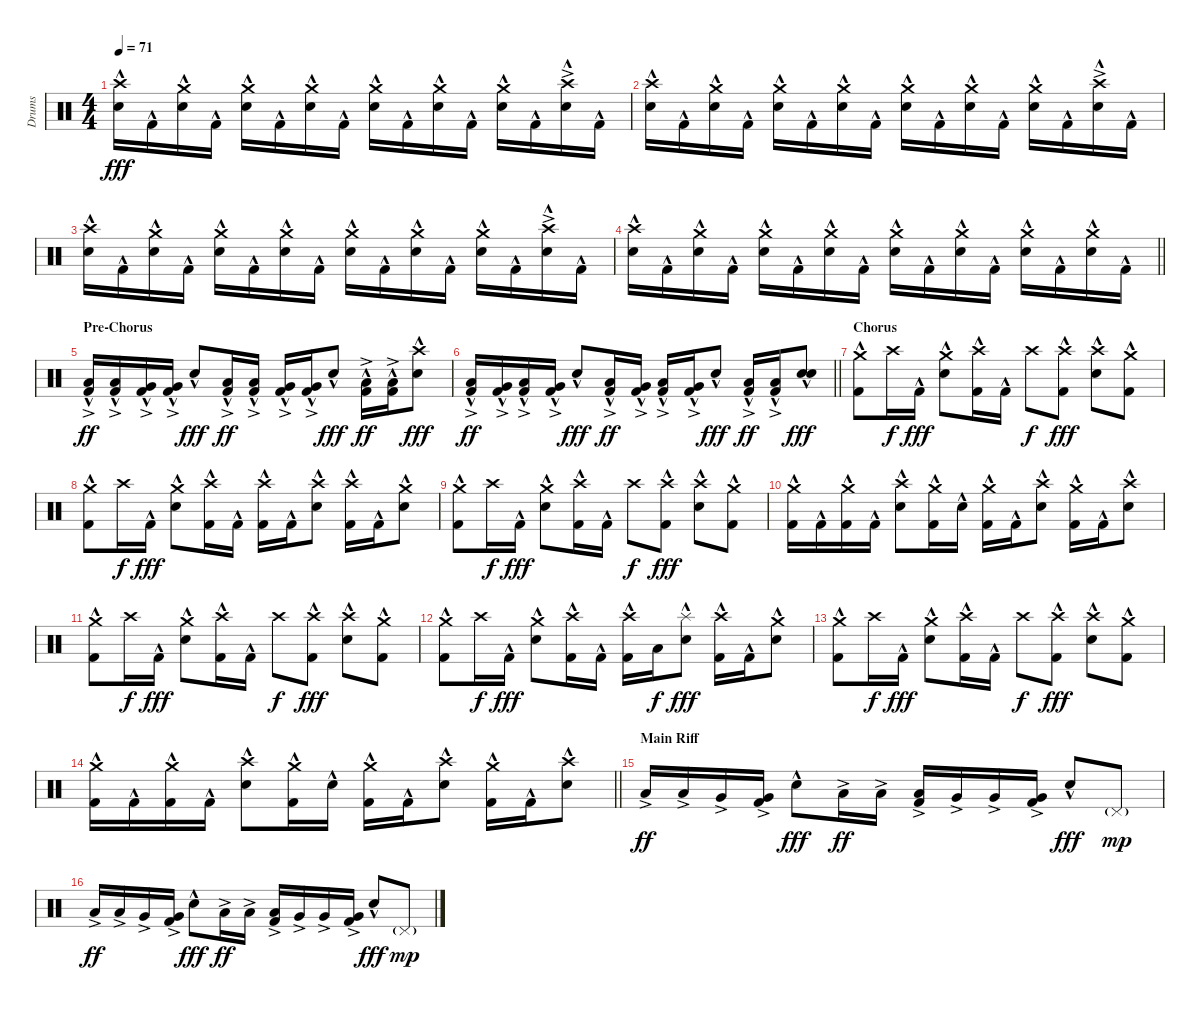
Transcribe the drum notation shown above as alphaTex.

\track ("Drums" "Drums") {instrument percussion}
\staff {score}
\articulation defaults
\ts (4 4)
\tempo 71
\clef neutral
\ks c
("Crash high (hit)" "Electric Snare (hit)"{hac}).16{dy fff} "Kick (hit) 2"{hac}.16 ("Crash medium (hit)" "Electric Snare (hit)"{hac}).16 "Kick (hit) 2"{hac}.16 ("Crash medium (hit)" "Electric Snare (hit)"{hac}).16 "Kick (hit) 2"{hac}.16 ("Crash medium (hit)" "Electric Snare (hit)"{hac}).16 "Kick (hit) 2"{hac}.16 ("Crash medium (hit)" "Electric Snare (hit)"{hac}).16 "Kick (hit) 2"{hac}.16 ("Crash medium (hit)" "Electric Snare (hit)"{hac}).16 "Kick (hit) 2"{hac}.16 ("Crash medium (hit)" "Electric Snare (hit)"{hac}).16 "Kick (hit) 2"{hac}.16 ("Crash high (hit)"{ac} "Electric Snare (hit)"{hac}).16 "Kick (hit) 2"{hac}.16 |
("Crash high (hit)" "Electric Snare (hit)"{hac}).16 "Kick (hit) 2"{hac}.16 ("Crash medium (hit)" "Electric Snare (hit)"{hac}).16 "Kick (hit) 2"{hac}.16 ("Crash medium (hit)" "Electric Snare (hit)"{hac}).16 "Kick (hit) 2"{hac}.16 ("Crash medium (hit)" "Electric Snare (hit)"{hac}).16 "Kick (hit) 2"{hac}.16 ("Crash medium (hit)" "Electric Snare (hit)"{hac}).16 "Kick (hit) 2"{hac}.16 ("Crash medium (hit)" "Electric Snare (hit)"{hac}).16 "Kick (hit) 2"{hac}.16 ("Crash medium (hit)" "Electric Snare (hit)"{hac}).16 "Kick (hit) 2"{hac}.16 ("Crash high (hit)"{ac} "Electric Snare (hit)"{hac}).16 "Kick (hit) 2"{hac}.16 |
("Crash high (hit)" "Electric Snare (hit)"{hac}).16 "Kick (hit) 2"{hac}.16 ("Crash medium (hit)" "Electric Snare (hit)"{hac}).16 "Kick (hit) 2"{hac}.16 ("Crash medium (hit)" "Electric Snare (hit)"{hac}).16 "Kick (hit) 2"{hac}.16 ("Crash medium (hit)" "Electric Snare (hit)"{hac}).16 "Kick (hit) 2"{hac}.16 ("Crash medium (hit)" "Electric Snare (hit)"{hac}).16 "Kick (hit) 2"{hac}.16 ("Crash medium (hit)" "Electric Snare (hit)"{hac}).16 "Kick (hit) 2"{hac}.16 ("Crash medium (hit)" "Electric Snare (hit)"{hac}).16 "Kick (hit) 2"{hac}.16 ("Crash high (hit)"{ac} "Electric Snare (hit)"{hac}).16 "Kick (hit) 2"{hac}.16 |
\barLineRight lightlight
("Crash high (hit)" "Electric Snare (hit)"{hac}).16 "Kick (hit) 2"{hac}.16 ("Crash medium (hit)" "Electric Snare (hit)"{hac}).16 "Kick (hit) 2"{hac}.16 ("Crash medium (hit)" "Electric Snare (hit)"{hac}).16 "Kick (hit) 2"{hac}.16 ("Crash medium (hit)" "Electric Snare (hit)"{hac}).16 "Kick (hit) 2"{hac}.16 ("Crash medium (hit)" "Electric Snare (hit)"{hac}).16 "Kick (hit) 2"{hac}.16 ("Crash medium (hit)" "Electric Snare (hit)"{hac}).16 "Kick (hit) 2"{hac}.16 ("Crash medium (hit)" "Electric Snare (hit)"{hac}).16 "Kick (hit) 2"{hac}.16 ("Crash medium (hit)" "Electric Snare (hit)"{hac}).16 "Kick (hit) 2"{hac}.16 |
\section ("" "Pre-Chorus")
("Low Floor Tom (hit)"{hac} "Kick (hit) 2"{ac}).16{dy ff} ("Low Floor Tom (hit)"{hac} "Kick (hit) 2"{ac}).16 ("Very Low Tom (hit)"{hac} "Kick (hit) 2"{ac}).16 ("Very Low Tom (hit)"{hac} "Kick (hit) 2"{ac}).16 "Electric Snare (hit)"{hac}.8{dy fff} ("Low Floor Tom (hit)"{hac} "Kick (hit) 2"{ac}).16{dy ff} ("Low Floor Tom (hit)"{hac} "Kick (hit) 2"{ac}).16 ("Very Low Tom (hit)"{hac} "Kick (hit) 2"{ac}).16 ("Very Low Tom (hit)"{hac} "Kick (hit) 2"{ac}).16 "Electric Snare (hit)"{hac}.8{dy fff} ("Low Floor Tom (hit)"{hac} "Kick (hit) 2"{ac}).16{dy ff} ("Low Floor Tom (hit)"{hac} "Kick (hit) 2"{ac}).16 ("Crash high (hit)" "Electric Snare (hit)"{hac}).8{dy fff} |
\barLineRight lightlight
("Low Floor Tom (hit)"{hac} "Kick (hit) 2"{ac}).16{dy ff} ("Very Low Tom (hit)"{hac} "Kick (hit) 2"{ac}).16 ("Low Floor Tom (hit)"{hac} "Kick (hit) 2"{ac}).16 ("Very Low Tom (hit)"{hac} "Kick (hit) 2"{ac}).16 "Electric Snare (hit)"{hac}.8{dy fff} ("Low Floor Tom (hit)"{hac} "Kick (hit) 2"{ac}).16{dy ff} ("Very Low Tom (hit)"{hac} "Kick (hit) 2"{ac}).16 ("Low Floor Tom (hit)"{hac} "Kick (hit) 2"{ac}).16 ("Very Low Tom (hit)"{hac} "Kick (hit) 2"{ac}).16 "Electric Snare (hit)"{hac}.8{dy fff} ("Low Floor Tom (hit)"{hac} "Kick (hit) 2"{ac}).16{dy ff} ("Low Floor Tom (hit)"{hac} "Kick (hit) 2"{ac}).16 ("Electric Snare (hit)"{hac} "Snare (hit) 2"{hac}).8{dy fff} |
\section ("" "Chorus")
("Crash medium (hit)" "Kick (hit) 2"{hac}).8 "Crash high (hit)".16{dy f} "Kick (hit) 2"{hac}.16{dy fff} ("Crash medium (hit)" "Electric Snare (hit)"{hac}).8 ("Crash high (hit)" "Kick (hit) 2"{hac}).16 "Kick (hit) 2"{hac}.16 "Crash high (hit)".8{dy f} ("Crash high (hit)" "Kick (hit) 2"{hac}).8{dy fff} ("Crash high (hit)" "Electric Snare (hit)"{hac}).8 ("Crash medium (hit)" "Kick (hit) 2"{hac}).8 |
("Crash medium (hit)" "Kick (hit) 2"{hac}).8 "Crash high (hit)".16{dy f} "Kick (hit) 2"{hac}.16{dy fff} ("Crash medium (hit)" "Electric Snare (hit)"{hac}).8 ("Crash high (hit)" "Kick (hit) 2"{hac}).16 "Kick (hit) 2"{hac}.16 ("Crash high (hit)" "Kick (hit) 2"{hac}).16 "Kick (hit) 2"{hac}.16 ("Crash high (hit)" "Electric Snare (hit)"{hac}).8 ("Crash high (hit)" "Kick (hit) 2"{hac}).16 "Kick (hit) 2"{hac}.16 ("Crash medium (hit)" "Electric Snare (hit)"{hac}).8 |
("Crash medium (hit)" "Kick (hit) 2"{hac}).8 "Crash high (hit)".16{dy f} "Kick (hit) 2"{hac}.16{dy fff} ("Crash medium (hit)" "Electric Snare (hit)"{hac}).8 ("Crash high (hit)" "Kick (hit) 2"{hac}).16 "Kick (hit) 2"{hac}.16 "Crash high (hit)".8{dy f} ("Crash high (hit)" "Kick (hit) 2"{hac}).8{dy fff} ("Crash high (hit)" "Electric Snare (hit)"{hac}).8 ("Crash medium (hit)" "Kick (hit) 2"{hac}).8 |
("Crash medium (hit)" "Kick (hit) 2"{hac}).16 "Kick (hit) 2"{hac}.16 ("Crash medium (hit)" "Kick (hit) 2"{hac}).16 "Kick (hit) 2"{hac}.16 ("Crash high (hit)" "Electric Snare (hit)"{hac}).8 ("Crash medium (hit)" "Kick (hit) 2"{hac}).16 "Electric Snare (hit)"{hac}.16 ("Crash medium (hit)" "Kick (hit) 2"{hac}).16 "Kick (hit) 2"{hac}.16 ("Crash high (hit)" "Electric Snare (hit)"{hac}).8 ("Crash medium (hit)" "Kick (hit) 2"{hac}).16 "Kick (hit) 2"{hac}.16 ("Crash high (hit)" "Electric Snare (hit)"{hac}).8 |
("Crash medium (hit)" "Kick (hit) 2"{hac}).8 "Crash high (hit)".16{dy f} "Kick (hit) 2"{hac}.16{dy fff} ("Crash medium (hit)" "Electric Snare (hit)"{hac}).8 ("Crash high (hit)" "Kick (hit) 2"{hac}).16 "Kick (hit) 2"{hac}.16 "Crash high (hit)".8{dy f} ("Crash high (hit)" "Kick (hit) 2"{hac}).8{dy fff} ("Crash high (hit)" "Electric Snare (hit)"{hac}).8 ("Crash medium (hit)" "Kick (hit) 2"{hac}).8 |
("Crash medium (hit)" "Kick (hit) 2"{hac}).8 "Crash high (hit)".16{dy f} "Kick (hit) 2"{hac}.16{dy fff} ("Crash medium (hit)" "Electric Snare (hit)"{hac}).8 ("Crash high (hit)" "Kick (hit) 2"{hac}).16 "Kick (hit) 2"{hac}.16 ("Crash high (hit)" "Kick (hit) 2"{hac}).16 "Low Floor Tom (hit)".16{dy f} ("Splash (hit)" "Electric Snare (hit)"{hac}).8{dy fff} ("Crash high (hit)" "Kick (hit) 2"{hac}).16 "Kick (hit) 2"{hac}.16 ("Crash medium (hit)" "Electric Snare (hit)"{hac}).8 |
("Crash medium (hit)" "Kick (hit) 2"{hac}).8 "Crash high (hit)".16{dy f} "Kick (hit) 2"{hac}.16{dy fff} ("Crash medium (hit)" "Electric Snare (hit)"{hac}).8 ("Crash high (hit)" "Kick (hit) 2"{hac}).16 "Kick (hit) 2"{hac}.16 "Crash high (hit)".8{dy f} ("Crash high (hit)" "Kick (hit) 2"{hac}).8{dy fff} ("Crash high (hit)" "Electric Snare (hit)"{hac}).8 ("Crash medium (hit)" "Kick (hit) 2"{hac}).8 |
\barLineRight lightlight
("Crash medium (hit)" "Kick (hit) 2"{hac}).16 "Kick (hit) 2"{hac}.16 ("Crash medium (hit)" "Kick (hit) 2"{hac}).16 "Kick (hit) 2"{hac}.16 ("Crash high (hit)" "Electric Snare (hit)"{hac}).8 ("Crash medium (hit)" "Kick (hit) 2"{hac}).16 "Electric Snare (hit)"{hac}.16 ("Crash medium (hit)" "Kick (hit) 2"{hac}).16 "Kick (hit) 2"{hac}.16 ("Crash high (hit)" "Electric Snare (hit)"{hac}).8 ("Crash medium (hit)" "Kick (hit) 2"{hac}).16 "Kick (hit) 2"{hac}.16 ("Crash high (hit)" "Electric Snare (hit)"{hac}).8 |
\section ("" "Main Riff")
"Low Floor Tom (hit)"{ac}.16{dy ff} "Low Floor Tom (hit)"{ac}.16 "Very Low Tom (hit)"{ac}.16 ("Very Low Tom (hit)"{ac} "Kick (hit) 2"{ac}).16 "Electric Snare (hit)"{hac}.8{dy fff} "Low Floor Tom (hit)"{ac}.16{dy ff} "Low Floor Tom (hit)"{ac}.16 ("Low Floor Tom (hit)"{ac} "Kick (hit) 2"{ac}).16 "Very Low Tom (hit)"{ac}.16 "Very Low Tom (hit)"{ac}.16 ("Very Low Tom (hit)"{ac} "Kick (hit) 2"{ac}).16 "Electric Snare (hit)"{hac}.8{dy fff} "Pedal Hi-Hat (hit)"{g}.8{dy mp} |
"Low Floor Tom (hit)"{ac}.16{dy ff} "Low Floor Tom (hit)"{ac}.16 "Very Low Tom (hit)"{ac}.16 ("Very Low Tom (hit)" "Kick (hit) 2"{ac}).16 "Electric Snare (hit)"{hac}.8{dy fff} "Low Floor Tom (hit)"{ac}.16{dy ff} "Low Floor Tom (hit)"{ac}.16 ("Low Floor Tom (hit)"{ac} "Kick (hit) 2"{ac}).16 "Very Low Tom (hit)"{ac}.16 "Very Low Tom (hit)"{ac}.16 ("Very Low Tom (hit)"{ac} "Kick (hit) 2"{ac}).16 "Electric Snare (hit)"{hac}.8{dy fff} "Pedal Hi-Hat (hit)"{g}.8{dy mp}
